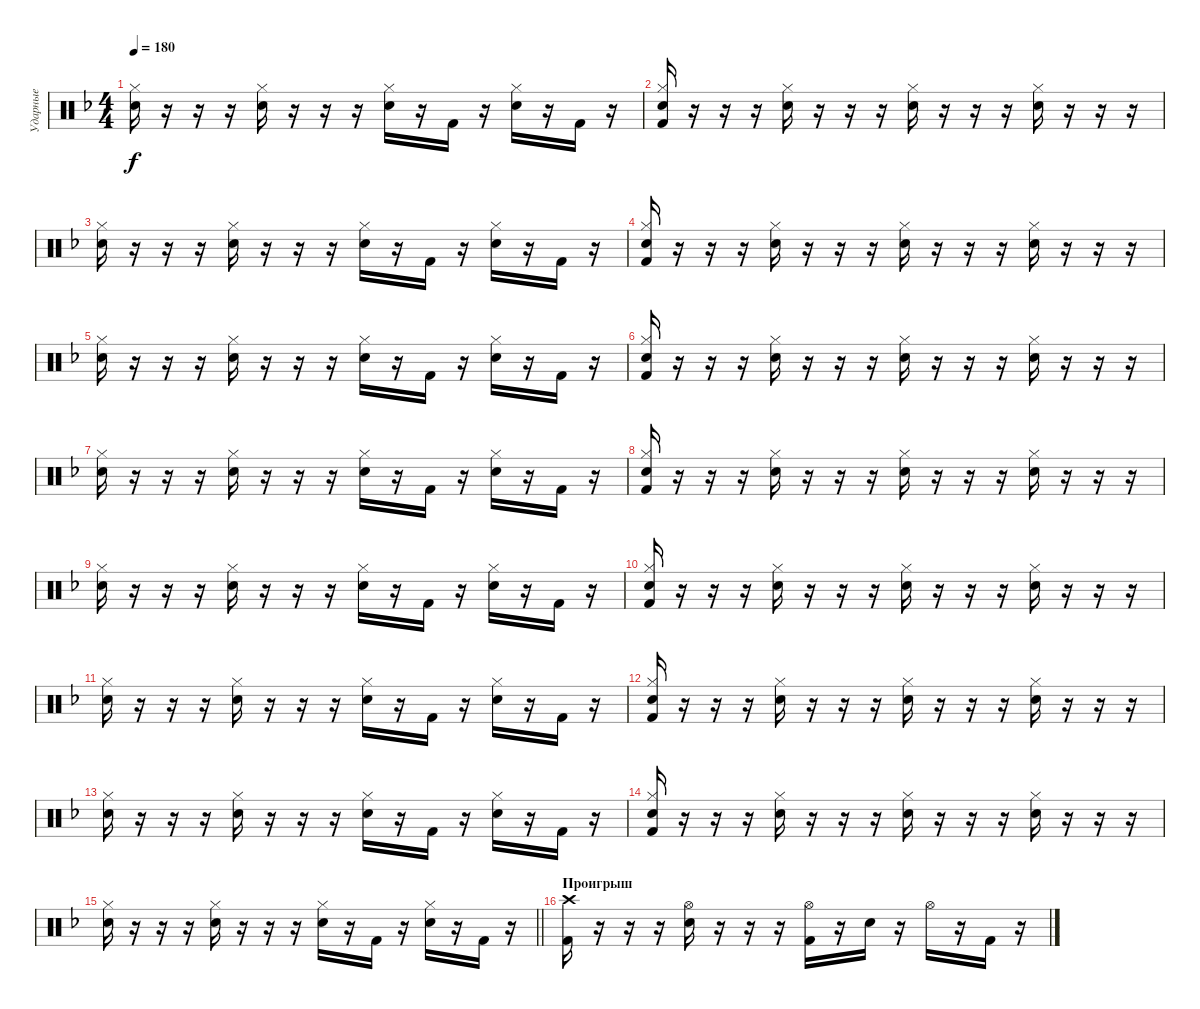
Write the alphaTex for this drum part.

\track ("Ударные" "Ударные") {instrument percussion}
\staff {score}
\articulation defaults
\ts (4 4)
\tempo 180
\clef neutral
\ks dminor
("Electric Snare (hit)" "Hi-Hat (closed)").16{dy f} r.16 r.16 r.16 ("Electric Snare (hit)" "Hi-Hat (closed)").16 r.16 r.16 r.16 ("Electric Snare (hit)" "Hi-Hat (closed)").16 r.16 "Kick (hit) 2".16 r.16 ("Electric Snare (hit)" "Hi-Hat (closed)").16 r.16 "Kick (hit) 2".16 r.16 |
("Electric Snare (hit)" "Kick (hit) 2" "Hi-Hat (closed)").16 r.16 r.16 r.16 ("Electric Snare (hit)" "Hi-Hat (closed)").16 r.16 r.16 r.16 ("Electric Snare (hit)" "Hi-Hat (closed)").16 r.16 r.16 r.16 ("Electric Snare (hit)" "Hi-Hat (closed)").16 r.16 r.16 r.16 |
("Electric Snare (hit)" "Hi-Hat (closed)").16 r.16 r.16 r.16 ("Electric Snare (hit)" "Hi-Hat (closed)").16 r.16 r.16 r.16 ("Electric Snare (hit)" "Hi-Hat (closed)").16 r.16 "Kick (hit) 2".16 r.16 ("Electric Snare (hit)" "Hi-Hat (closed)").16 r.16 "Kick (hit) 2".16 r.16 |
("Electric Snare (hit)" "Kick (hit) 2" "Hi-Hat (closed)").16 r.16 r.16 r.16 ("Electric Snare (hit)" "Hi-Hat (closed)").16 r.16 r.16 r.16 ("Electric Snare (hit)" "Hi-Hat (closed)").16 r.16 r.16 r.16 ("Electric Snare (hit)" "Hi-Hat (closed)").16 r.16 r.16 r.16 |
("Electric Snare (hit)" "Hi-Hat (closed)").16 r.16 r.16 r.16 ("Electric Snare (hit)" "Hi-Hat (closed)").16 r.16 r.16 r.16 ("Electric Snare (hit)" "Hi-Hat (closed)").16 r.16 "Kick (hit) 2".16 r.16 ("Electric Snare (hit)" "Hi-Hat (closed)").16 r.16 "Kick (hit) 2".16 r.16 |
("Electric Snare (hit)" "Kick (hit) 2" "Hi-Hat (closed)").16 r.16 r.16 r.16 ("Electric Snare (hit)" "Hi-Hat (closed)").16 r.16 r.16 r.16 ("Electric Snare (hit)" "Hi-Hat (closed)").16 r.16 r.16 r.16 ("Electric Snare (hit)" "Hi-Hat (closed)").16 r.16 r.16 r.16 |
("Electric Snare (hit)" "Hi-Hat (closed)").16 r.16 r.16 r.16 ("Electric Snare (hit)" "Hi-Hat (closed)").16 r.16 r.16 r.16 ("Electric Snare (hit)" "Hi-Hat (closed)").16 r.16 "Kick (hit) 2".16 r.16 ("Electric Snare (hit)" "Hi-Hat (closed)").16 r.16 "Kick (hit) 2".16 r.16 |
("Electric Snare (hit)" "Kick (hit) 2" "Hi-Hat (closed)").16 r.16 r.16 r.16 ("Electric Snare (hit)" "Hi-Hat (closed)").16 r.16 r.16 r.16 ("Electric Snare (hit)" "Hi-Hat (closed)").16 r.16 r.16 r.16 ("Electric Snare (hit)" "Hi-Hat (closed)").16 r.16 r.16 r.16 |
("Electric Snare (hit)" "Hi-Hat (closed)").16 r.16 r.16 r.16 ("Electric Snare (hit)" "Hi-Hat (closed)").16 r.16 r.16 r.16 ("Electric Snare (hit)" "Hi-Hat (closed)").16 r.16 "Kick (hit) 2".16 r.16 ("Electric Snare (hit)" "Hi-Hat (closed)").16 r.16 "Kick (hit) 2".16 r.16 |
("Electric Snare (hit)" "Kick (hit) 2" "Hi-Hat (closed)").16 r.16 r.16 r.16 ("Electric Snare (hit)" "Hi-Hat (closed)").16 r.16 r.16 r.16 ("Electric Snare (hit)" "Hi-Hat (closed)").16 r.16 r.16 r.16 ("Electric Snare (hit)" "Hi-Hat (closed)").16 r.16 r.16 r.16 |
("Electric Snare (hit)" "Hi-Hat (closed)").16 r.16 r.16 r.16 ("Electric Snare (hit)" "Hi-Hat (closed)").16 r.16 r.16 r.16 ("Electric Snare (hit)" "Hi-Hat (closed)").16 r.16 "Kick (hit) 2".16 r.16 ("Electric Snare (hit)" "Hi-Hat (closed)").16 r.16 "Kick (hit) 2".16 r.16 |
("Electric Snare (hit)" "Kick (hit) 2" "Hi-Hat (closed)").16 r.16 r.16 r.16 ("Electric Snare (hit)" "Hi-Hat (closed)").16 r.16 r.16 r.16 ("Electric Snare (hit)" "Hi-Hat (closed)").16 r.16 r.16 r.16 ("Electric Snare (hit)" "Hi-Hat (closed)").16 r.16 r.16 r.16 |
("Electric Snare (hit)" "Hi-Hat (closed)").16 r.16 r.16 r.16 ("Electric Snare (hit)" "Hi-Hat (closed)").16 r.16 r.16 r.16 ("Electric Snare (hit)" "Hi-Hat (closed)").16 r.16 "Kick (hit) 2".16 r.16 ("Electric Snare (hit)" "Hi-Hat (closed)").16 r.16 "Kick (hit) 2".16 r.16 |
("Electric Snare (hit)" "Kick (hit) 2" "Hi-Hat (closed)").16 r.16 r.16 r.16 ("Electric Snare (hit)" "Hi-Hat (closed)").16 r.16 r.16 r.16 ("Electric Snare (hit)" "Hi-Hat (closed)").16 r.16 r.16 r.16 ("Electric Snare (hit)" "Hi-Hat (closed)").16 r.16 r.16 r.16 |
\barLineRight lightlight
("Electric Snare (hit)" "Hi-Hat (closed)").16 r.16 r.16 r.16 ("Electric Snare (hit)" "Hi-Hat (closed)").16 r.16 r.16 r.16 ("Electric Snare (hit)" "Hi-Hat (closed)").16 r.16 "Kick (hit) 2".16 r.16 ("Electric Snare (hit)" "Hi-Hat (closed)").16 r.16 "Kick (hit) 2".16 r.16 |
\section ("" "Проигрыш")
("Crash high (hit)" "Kick (hit) 2").16 r.16 r.16 r.16 ("Hi-Hat (open)" "Electric Snare (hit)").16 r.16 r.16 r.16 ("Hi-Hat (open)" "Kick (hit) 2").16 r.16 "Electric Snare (hit)".16 r.16 "Hi-Hat (open)".16 r.16 "Kick (hit) 2".16 r.16
